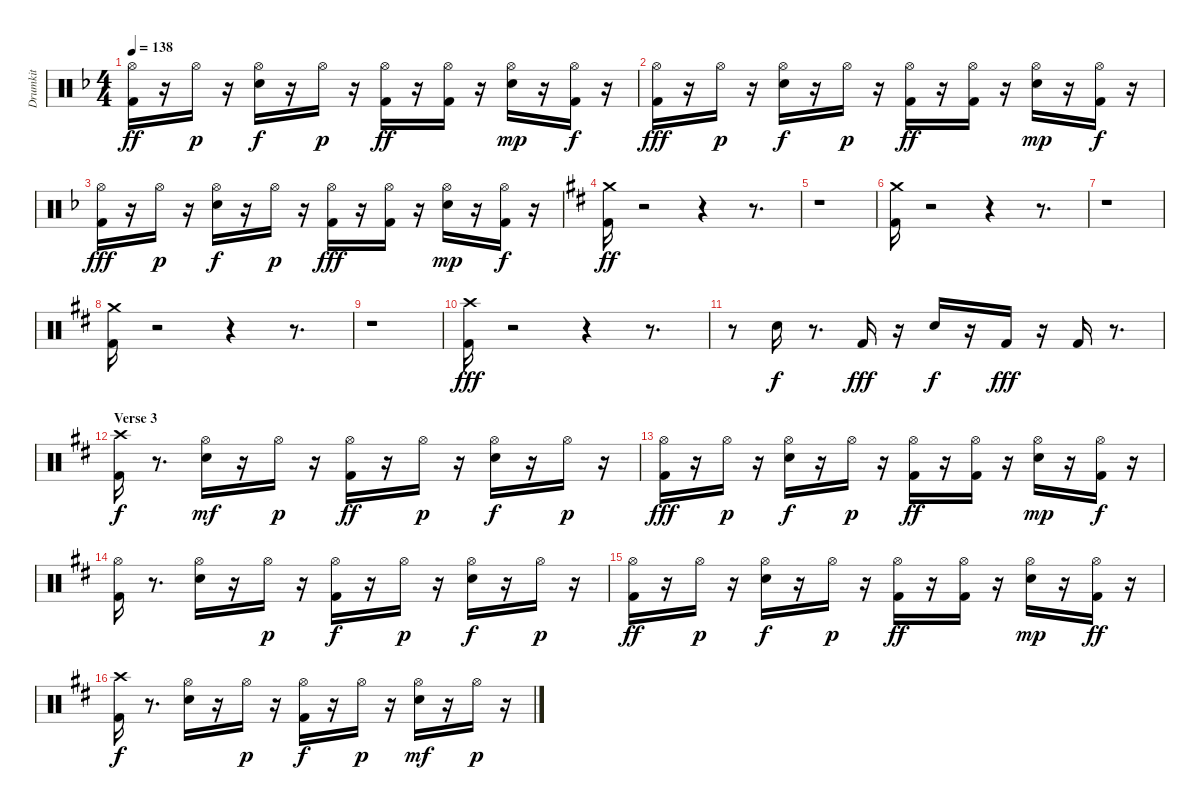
\track ("Drumkit" "Drumkit") {instrument percussion}
\staff {score}
\articulation defaults
\ts (4 4)
\tempo 138
\clef neutral
\ks f
("Kick (hit) 2" "Hi-Hat (open)").16{dy ff} r.16 "Hi-Hat (open)".16{dy p} r.16 ("Snare (hit) 2" "Hi-Hat (open)").16{dy f} r.16 "Hi-Hat (open)".16{dy p} r.16 ("Kick (hit) 2" "Hi-Hat (open)").16{dy ff} r.16 ("Kick (hit) 2" "Hi-Hat (open)").16 r.16 ("Snare (hit) 2" "Hi-Hat (open)").16{dy mp} r.16 ("Kick (hit) 2" "Hi-Hat (open)").16{dy f} r.16 |
("Kick (hit) 2" "Hi-Hat (open)").16{dy fff} r.16 "Hi-Hat (open)".16{dy p} r.16 ("Snare (hit) 2" "Hi-Hat (open)").16{dy f} r.16 "Hi-Hat (open)".16{dy p} r.16 ("Kick (hit) 2" "Hi-Hat (open)").16{dy ff} r.16 ("Kick (hit) 2" "Hi-Hat (open)").16 r.16 ("Snare (hit) 2" "Hi-Hat (open)").16{dy mp} r.16 ("Kick (hit) 2" "Hi-Hat (open)").16{dy f} r.16 |
("Kick (hit) 2" "Hi-Hat (open)").16{dy fff} r.16 "Hi-Hat (open)".16{dy p} r.16 ("Snare (hit) 2" "Hi-Hat (open)").16{dy f} r.16 "Hi-Hat (open)".16{dy p} r.16 ("Kick (hit) 2" "Hi-Hat (open)").16{dy fff} r.16 ("Kick (hit) 2" "Hi-Hat (open)").16 r.16 ("Snare (hit) 2" "Hi-Hat (open)").16{dy mp} r.16 ("Kick (hit) 2" "Hi-Hat (open)").16{dy f} r.16 |
\ks d
("Kick (hit) 2" "Crash medium (hit)").16{dy ff} r.2 r.4 r.8{d} |
r.1 |
("Kick (hit) 2" "Crash medium (hit)").16 r.2 r.4 r.8{d} |
r.1 |
("Kick (hit) 2" "Crash medium (hit)").16 r.2 r.4 r.8{d} |
r.1 |
("Kick (hit) 2" "Crash high (hit)").16{dy fff} r.2 r.4 r.8{d} |
r.8 "Snare (hit) 2".16{dy f} r.8{d} "Kick (hit) 2".16{dy fff} r.16 "Snare (hit) 2".16{dy f} r.16 "Kick (hit) 2".16{dy fff} r.16 "Kick (hit) 2".16 r.8{d} |
\section ("" "Verse 3")
("Kick (hit) 2" "Crash high (hit)").16{dy f} r.8{d} ("Snare (hit) 2" "Hi-Hat (open)").16{dy mf} r.16 "Hi-Hat (open)".16{dy p} r.16 ("Kick (hit) 2" "Hi-Hat (open)").16{dy ff} r.16 "Hi-Hat (open)".16{dy p} r.16 ("Snare (hit) 2" "Hi-Hat (open)").16{dy f} r.16 "Hi-Hat (open)".16{dy p} r.16 |
("Kick (hit) 2" "Hi-Hat (open)").16{dy fff} r.16 "Hi-Hat (open)".16{dy p} r.16 ("Snare (hit) 2" "Hi-Hat (open)").16{dy f} r.16 "Hi-Hat (open)".16{dy p} r.16 ("Kick (hit) 2" "Hi-Hat (open)").16{dy ff} r.16 ("Kick (hit) 2" "Hi-Hat (open)").16 r.16 ("Snare (hit) 2" "Hi-Hat (open)").16{dy mp} r.16 ("Kick (hit) 2" "Hi-Hat (open)").16{dy f} r.16 |
("Kick (hit) 2" "Hi-Hat (open)").16 r.8{d} ("Snare (hit) 2" "Hi-Hat (open)").16 r.16 "Hi-Hat (open)".16{dy p} r.16 ("Kick (hit) 2" "Hi-Hat (open)").16{dy f} r.16 "Hi-Hat (open)".16{dy p} r.16 ("Snare (hit) 2" "Hi-Hat (open)").16{dy f} r.16 "Hi-Hat (open)".16{dy p} r.16 |
("Kick (hit) 2" "Hi-Hat (open)").16{dy ff} r.16 "Hi-Hat (open)".16{dy p} r.16 ("Snare (hit) 2" "Hi-Hat (open)").16{dy f} r.16 "Hi-Hat (open)".16{dy p} r.16 ("Kick (hit) 2" "Hi-Hat (open)").16{dy ff} r.16 ("Kick (hit) 2" "Hi-Hat (open)").16 r.16 ("Snare (hit) 2" "Hi-Hat (open)").16{dy mp} r.16 ("Kick (hit) 2" "Hi-Hat (open)").16{dy ff} r.16 |
("Kick (hit) 2" "Crash high (hit)").16{dy f} r.8{d} ("Snare (hit) 2" "Hi-Hat (open)").16 r.16 "Hi-Hat (open)".16{dy p} r.16 ("Kick (hit) 2" "Hi-Hat (open)").16{dy f} r.16 "Hi-Hat (open)".16{dy p} r.16 ("Snare (hit) 2" "Hi-Hat (open)").16{dy mf} r.16 "Hi-Hat (open)".16{dy p} r.16
